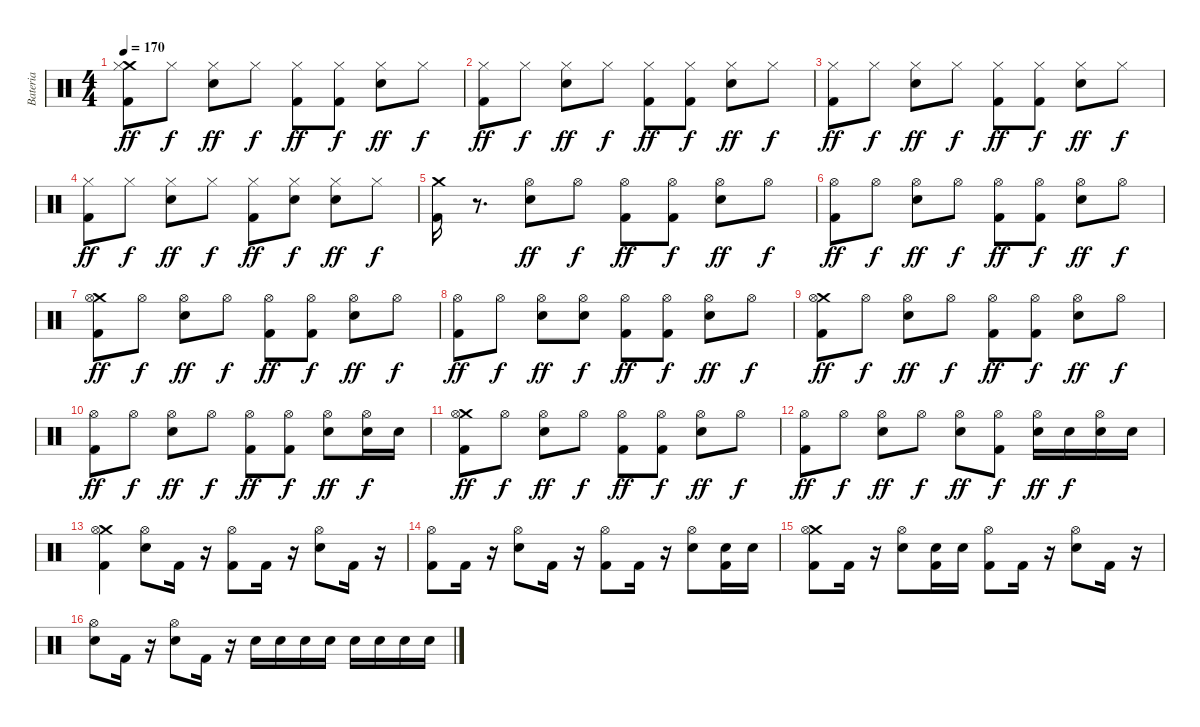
\track ("Bateria" "Bateria") {instrument percussion}
\staff {score}
\articulation defaults
\ts (4 4)
\tempo 170
\clef neutral
\ks c
("Crash medium (hit)" "Hi-Hat (closed)" "Kick (hit) 2").8{dy ff} "Hi-Hat (closed)".8{dy f} ("Hi-Hat (closed)" "Electric Snare (hit)").8{dy ff} "Hi-Hat (closed)".8{dy f} ("Hi-Hat (closed)" "Kick (hit) 2").8{dy ff} ("Hi-Hat (closed)" "Kick (hit) 2").8{dy f} ("Hi-Hat (closed)" "Electric Snare (hit)").8{dy ff} "Hi-Hat (closed)".8{dy f} |
("Hi-Hat (closed)" "Kick (hit) 2").8{dy ff} "Hi-Hat (closed)".8{dy f} ("Hi-Hat (closed)" "Electric Snare (hit)").8{dy ff} "Hi-Hat (closed)".8{dy f} ("Hi-Hat (closed)" "Kick (hit) 2").8{dy ff} ("Hi-Hat (closed)" "Kick (hit) 2").8{dy f} ("Hi-Hat (closed)" "Electric Snare (hit)").8{dy ff} "Hi-Hat (closed)".8{dy f} |
("Hi-Hat (closed)" "Kick (hit) 2").8{dy ff} "Hi-Hat (closed)".8{dy f} ("Hi-Hat (closed)" "Electric Snare (hit)").8{dy ff} "Hi-Hat (closed)".8{dy f} ("Hi-Hat (closed)" "Kick (hit) 2").8{dy ff} ("Hi-Hat (closed)" "Kick (hit) 2").8{dy f} ("Hi-Hat (closed)" "Electric Snare (hit)").8{dy ff} "Hi-Hat (closed)".8{dy f} |
("Hi-Hat (closed)" "Kick (hit) 2").8{dy ff} "Hi-Hat (closed)".8{dy f} ("Hi-Hat (closed)" "Electric Snare (hit)").8{dy ff} "Hi-Hat (closed)".8{dy f} ("Hi-Hat (closed)" "Kick (hit) 2").8{dy ff} ("Hi-Hat (closed)" "Electric Snare (hit)").8{dy f} ("Hi-Hat (closed)" "Electric Snare (hit)").8{dy ff} "Hi-Hat (closed)".8{dy f} |
("Crash medium (hit)" "Kick (hit) 2").16 r.8{d} ("Hi-Hat (open)" "Electric Snare (hit)").8{dy ff} "Hi-Hat (open)".8{dy f} ("Hi-Hat (open)" "Kick (hit) 2").8{dy ff} ("Hi-Hat (open)" "Kick (hit) 2").8{dy f} ("Hi-Hat (open)" "Electric Snare (hit)").8{dy ff} "Hi-Hat (open)".8{dy f} |
("Hi-Hat (open)" "Kick (hit) 2").8{dy ff} "Hi-Hat (open)".8{dy f} ("Hi-Hat (open)" "Electric Snare (hit)").8{dy ff} "Hi-Hat (open)".8{dy f} ("Hi-Hat (open)" "Kick (hit) 2").8{dy ff} ("Hi-Hat (open)" "Kick (hit) 2").8{dy f} ("Hi-Hat (open)" "Electric Snare (hit)").8{dy ff} "Hi-Hat (open)".8{dy f} |
("Crash medium (hit)" "Hi-Hat (open)" "Kick (hit) 2").8{dy ff} "Hi-Hat (open)".8{dy f} ("Hi-Hat (open)" "Electric Snare (hit)").8{dy ff} "Hi-Hat (open)".8{dy f} ("Hi-Hat (open)" "Kick (hit) 2").8{dy ff} ("Hi-Hat (open)" "Kick (hit) 2").8{dy f} ("Hi-Hat (open)" "Electric Snare (hit)").8{dy ff} "Hi-Hat (open)".8{dy f} |
("Hi-Hat (open)" "Kick (hit) 2").8{dy ff} "Hi-Hat (open)".8{dy f} ("Hi-Hat (open)" "Electric Snare (hit)").8{dy ff} ("Hi-Hat (open)" "Electric Snare (hit)").8{dy f} ("Hi-Hat (open)" "Kick (hit) 2").8{dy ff} ("Hi-Hat (open)" "Kick (hit) 2").8{dy f} ("Hi-Hat (open)" "Electric Snare (hit)").8{dy ff} "Hi-Hat (open)".8{dy f} |
("Crash medium (hit)" "Hi-Hat (open)" "Kick (hit) 2").8{dy ff} "Hi-Hat (open)".8{dy f} ("Hi-Hat (open)" "Electric Snare (hit)").8{dy ff} "Hi-Hat (open)".8{dy f} ("Hi-Hat (open)" "Kick (hit) 2").8{dy ff} ("Hi-Hat (open)" "Kick (hit) 2").8{dy f} ("Hi-Hat (open)" "Electric Snare (hit)").8{dy ff} "Hi-Hat (open)".8{dy f} |
("Hi-Hat (open)" "Kick (hit) 2").8{dy ff} "Hi-Hat (open)".8{dy f} ("Hi-Hat (open)" "Electric Snare (hit)").8{dy ff} "Hi-Hat (open)".8{dy f} ("Hi-Hat (open)" "Kick (hit) 2").8{dy ff} ("Hi-Hat (open)" "Kick (hit) 2").8{dy f} ("Hi-Hat (open)" "Electric Snare (hit)").8{dy ff} ("Hi-Hat (open)" "Electric Snare (hit)").16{dy f} "Electric Snare (hit)".16 |
("Crash medium (hit)" "Hi-Hat (open)" "Kick (hit) 2").8{dy ff} "Hi-Hat (open)".8{dy f} ("Hi-Hat (open)" "Electric Snare (hit)").8{dy ff} "Hi-Hat (open)".8{dy f} ("Hi-Hat (open)" "Kick (hit) 2").8{dy ff} ("Hi-Hat (open)" "Kick (hit) 2").8{dy f} ("Hi-Hat (open)" "Electric Snare (hit)").8{dy ff} "Hi-Hat (open)".8{dy f} |
("Hi-Hat (open)" "Kick (hit) 2").8{dy ff} "Hi-Hat (open)".8{dy f} ("Hi-Hat (open)" "Electric Snare (hit)").8{dy ff} "Hi-Hat (open)".8{dy f} ("Hi-Hat (open)" "Electric Snare (hit)").8{dy ff} ("Hi-Hat (open)" "Kick (hit) 2").8{dy f} ("Hi-Hat (open)" "Electric Snare (hit)").16{dy ff} "Electric Snare (hit)".16{dy f} ("Hi-Hat (open)" "Electric Snare (hit)").16 "Electric Snare (hit)".16 |
("Crash medium (hit)" "Hi-Hat (open)" "Kick (hit) 2").4 ("Hi-Hat (open)" "Electric Snare (hit)").8 "Kick (hit) 2".16 r.16 ("Hi-Hat (open)" "Kick (hit) 2").8 "Kick (hit) 2".16 r.16 ("Hi-Hat (open)" "Electric Snare (hit)").8 "Kick (hit) 2".16 r.16 |
("Hi-Hat (open)" "Kick (hit) 2").8 "Kick (hit) 2".16 r.16 ("Hi-Hat (open)" "Electric Snare (hit)").8 "Kick (hit) 2".16 r.16 ("Hi-Hat (open)" "Kick (hit) 2").8 "Kick (hit) 2".16 r.16 ("Hi-Hat (open)" "Electric Snare (hit)").8 ("Kick (hit) 2" "Electric Snare (hit)").16 "Electric Snare (hit)".16 |
("Crash medium (hit)" "Hi-Hat (open)" "Kick (hit) 2").8 "Kick (hit) 2".16 r.16 ("Hi-Hat (open)" "Electric Snare (hit)").8 ("Kick (hit) 2" "Electric Snare (hit)").16 "Electric Snare (hit)".16 ("Hi-Hat (open)" "Kick (hit) 2").8 "Kick (hit) 2".16 r.16 ("Hi-Hat (open)" "Electric Snare (hit)").8 "Kick (hit) 2".16 r.16 |
("Hi-Hat (open)" "Electric Snare (hit)").8 "Kick (hit) 2".16 r.16 ("Hi-Hat (open)" "Electric Snare (hit)").8 "Kick (hit) 2".16 r.16 "Electric Snare (hit)".16 "Electric Snare (hit)".16 "Electric Snare (hit)".16 "Electric Snare (hit)".16 "Electric Snare (hit)".16 "Electric Snare (hit)".16 "Electric Snare (hit)".16 "Electric Snare (hit)".16
